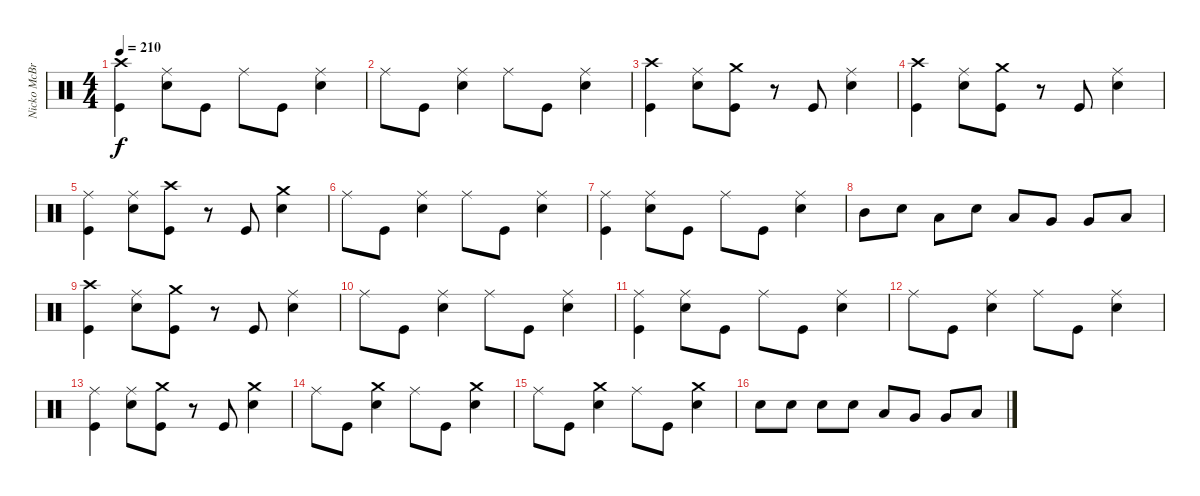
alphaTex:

\track ("Nicko McBrain" "Nicko McBr") {instrument percussion}
\staff {score}
\articulation defaults
\ts (4 4)
\tempo 210
\clef neutral
\ks c
("Crash high (hit)" "Kick (hit)").4{dy f} ("Ride (middle)" "Snare (hit) 2").8 "Kick (hit)".8 "Ride (middle)".8 "Kick (hit)".8 ("Ride (middle)" "Snare (hit) 2").4 |
"Ride (middle)".8 "Kick (hit)".8 ("Ride (middle)" "Snare (hit) 2").4 "Ride (middle)".8 "Kick (hit)".8 ("Ride (middle)" "Snare (hit) 2").4 |
("Crash high (hit)" "Kick (hit)").4 ("Ride (middle)" "Snare (hit) 2").8 ("Crash medium (hit)" "Kick (hit)").8 r.8 "Kick (hit)".8 ("Ride (middle)" "Snare (hit) 2").4 |
("Crash high (hit)" "Kick (hit)").4 ("Ride (middle)" "Snare (hit) 2").8 ("Crash medium (hit)" "Kick (hit)").8 r.8 "Kick (hit)".8 ("Ride (middle)" "Snare (hit) 2").4 |
("Ride (middle)" "Kick (hit)").4 ("Ride (middle)" "Snare (hit) 2").8 ("Crash high (hit)" "Kick (hit)").8 r.8 "Kick (hit)".8 ("Crash medium (hit)" "Snare (hit) 2").4 |
"Ride (middle)".8 "Kick (hit)".8 ("Ride (middle)" "Snare (hit) 2").4 "Ride (middle)".8 "Kick (hit)".8 ("Ride (middle)" "Snare (hit) 2").4 |
("Ride (middle)" "Kick (hit)").4 ("Ride (middle)" "Snare (hit) 2").8 "Kick (hit)".8 "Ride (middle)".8 "Kick (hit)".8 ("Ride (middle)" "Snare (hit) 2").4 |
"Mid Tom (hit)".8 "Snare (hit) 2".8 "Low Tom (hit)".8 "Snare (hit) 2".8 "Low Tom (hit)".8 "Very Low Tom (hit)".8 "Very Low Tom (hit)".8 "Low Floor Tom (hit)".8 |
("Crash high (hit)" "Kick (hit)").4 ("Ride (middle)" "Snare (hit) 2").8 ("Crash medium (hit)" "Kick (hit)").8 r.8 "Kick (hit)".8 ("Ride (middle)" "Snare (hit) 2").4 |
"Ride (middle)".8 "Kick (hit)".8 ("Ride (middle)" "Snare (hit) 2").4 "Ride (middle)".8 "Kick (hit)".8 ("Ride (middle)" "Snare (hit) 2").4 |
("Ride (middle)" "Kick (hit)").4 ("Ride (middle)" "Snare (hit) 2").8 "Kick (hit)".8 "Ride (middle)".8 "Kick (hit)".8 ("Ride (middle)" "Snare (hit) 2").4 |
"Ride (middle)".8 "Kick (hit)".8 ("Ride (middle)" "Snare (hit) 2").4 "Ride (middle)".8 "Kick (hit)".8 ("Ride (middle)" "Snare (hit) 2").4 |
("Ride (middle)" "Kick (hit)").4 ("Ride (middle)" "Snare (hit) 2").8 ("Crash medium (hit)" "Kick (hit)").8 r.8 "Kick (hit)".8 ("Crash medium (hit)" "Snare (hit) 2").4 |
"Ride (middle)".8 "Kick (hit)".8 ("Crash medium (hit)" "Snare (hit) 2").4 "Ride (middle)".8 "Kick (hit)".8 ("Crash medium (hit)" "Snare (hit) 2").4 |
"Ride (middle)".8 "Kick (hit)".8 ("Crash medium (hit)" "Snare (hit) 2").4 "Ride (middle)".8 "Kick (hit)".8 ("Crash medium (hit)" "Snare (hit) 2").4 |
"Snare (hit) 2".8 "Snare (hit) 2".8 "Snare (hit) 2".8 "Snare (hit) 2".8 "Low Tom (hit)".8 "Very Low Tom (hit)".8 "Very Low Tom (hit)".8 "Low Floor Tom (hit)".8
